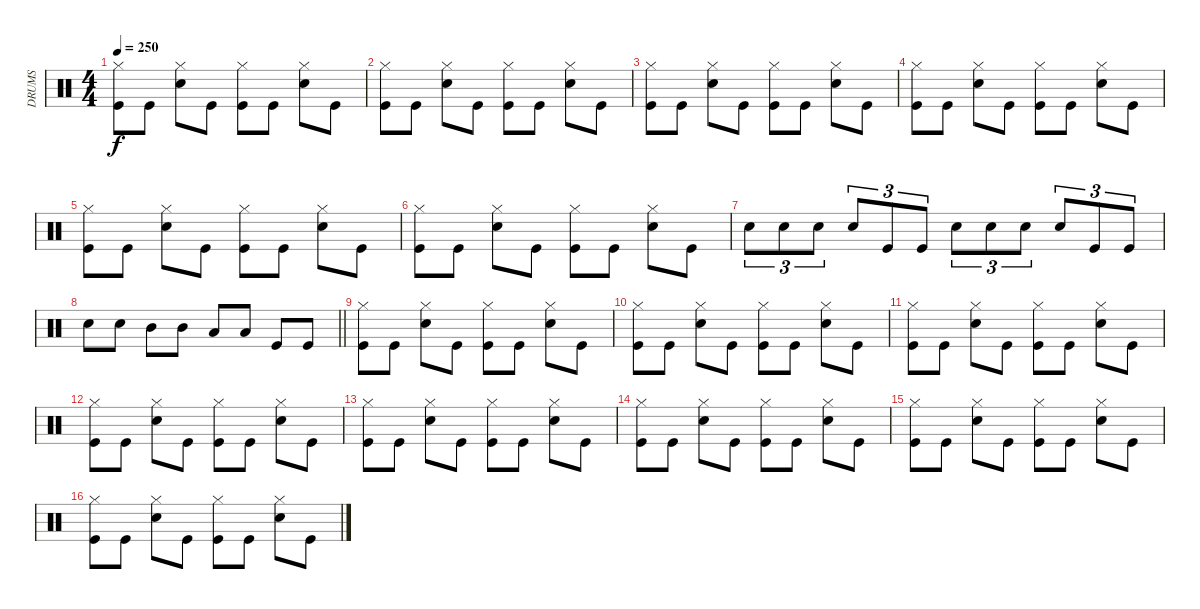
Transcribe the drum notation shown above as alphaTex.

\track ("DRUMS" "DRUMS") {instrument percussion}
\staff {score}
\articulation defaults
\ts (4 4)
\tempo 250
\clef neutral
\ks aminor
("Hi-Hat (closed)" "Kick (hit)").8{dy f} "Kick (hit)".8 ("Hi-Hat (closed)" "Snare (hit) 2").8 "Kick (hit)".8 ("Hi-Hat (closed)" "Kick (hit)").8 "Kick (hit)".8 ("Hi-Hat (closed)" "Snare (hit) 2").8 "Kick (hit)".8 |
("Hi-Hat (closed)" "Kick (hit)").8 "Kick (hit)".8 ("Hi-Hat (closed)" "Snare (hit) 2").8 "Kick (hit)".8 ("Hi-Hat (closed)" "Kick (hit)").8 "Kick (hit)".8 ("Hi-Hat (closed)" "Snare (hit) 2").8 "Kick (hit)".8 |
("Hi-Hat (closed)" "Kick (hit)").8 "Kick (hit)".8 ("Hi-Hat (closed)" "Snare (hit) 2").8 "Kick (hit)".8 ("Hi-Hat (closed)" "Kick (hit)").8 "Kick (hit)".8 ("Hi-Hat (closed)" "Snare (hit) 2").8 "Kick (hit)".8 |
("Hi-Hat (closed)" "Kick (hit)").8 "Kick (hit)".8 ("Hi-Hat (closed)" "Snare (hit) 2").8 "Kick (hit)".8 ("Hi-Hat (closed)" "Kick (hit)").8 "Kick (hit)".8 ("Hi-Hat (closed)" "Snare (hit) 2").8 "Kick (hit)".8 |
("Hi-Hat (closed)" "Kick (hit)").8 "Kick (hit)".8 ("Hi-Hat (closed)" "Snare (hit) 2").8 "Kick (hit)".8 ("Hi-Hat (closed)" "Kick (hit)").8 "Kick (hit)".8 ("Hi-Hat (closed)" "Snare (hit) 2").8 "Kick (hit)".8 |
("Hi-Hat (closed)" "Kick (hit)").8 "Kick (hit)".8 ("Hi-Hat (closed)" "Snare (hit) 2").8 "Kick (hit)".8 ("Hi-Hat (closed)" "Kick (hit)").8 "Kick (hit)".8 ("Hi-Hat (closed)" "Snare (hit) 2").8 "Kick (hit)".8 |
"Snare (hit) 2".8{tu (3 2)} "Snare (hit) 2".8{tu (3 2)} "Snare (hit) 2".8{tu (3 2)} "Snare (hit) 2".8{tu (3 2)} "Kick (hit)".8{tu (3 2)} "Kick (hit)".8{tu (3 2)} "Snare (hit) 2".8{tu (3 2)} "Snare (hit) 2".8{tu (3 2)} "Snare (hit) 2".8{tu (3 2)} "Snare (hit) 2".8{tu (3 2)} "Kick (hit)".8{tu (3 2)} "Kick (hit)".8{tu (3 2)} |
\barLineRight lightlight "Snare (hit) 2".8 "Snare (hit) 2".8 "Mid Tom (hit)".8 "Mid Tom (hit)".8 "Low Tom (hit)".8 "Low Tom (hit)".8 "Kick (hit)".8 "Kick (hit)".8
|
("Hi-Hat (closed)" "Kick (hit)").8 "Kick (hit)".8 ("Hi-Hat (closed)" "Snare (hit) 2").8 "Kick (hit)".8 ("Hi-Hat (closed)" "Kick (hit)").8 "Kick (hit)".8 ("Hi-Hat (closed)" "Snare (hit) 2").8 "Kick (hit)".8 |
("Hi-Hat (closed)" "Kick (hit)").8 "Kick (hit)".8 ("Hi-Hat (closed)" "Snare (hit) 2").8 "Kick (hit)".8 ("Hi-Hat (closed)" "Kick (hit)").8 "Kick (hit)".8 ("Hi-Hat (closed)" "Snare (hit) 2").8 "Kick (hit)".8 |
("Hi-Hat (closed)" "Kick (hit)").8 "Kick (hit)".8 ("Hi-Hat (closed)" "Snare (hit) 2").8 "Kick (hit)".8 ("Hi-Hat (closed)" "Kick (hit)").8 "Kick (hit)".8 ("Hi-Hat (closed)" "Snare (hit) 2").8 "Kick (hit)".8 |
("Hi-Hat (closed)" "Kick (hit)").8 "Kick (hit)".8 ("Hi-Hat (closed)" "Snare (hit) 2").8 "Kick (hit)".8 ("Hi-Hat (closed)" "Kick (hit)").8 "Kick (hit)".8 ("Hi-Hat (closed)" "Snare (hit) 2").8 "Kick (hit)".8 |
("Hi-Hat (closed)" "Kick (hit)").8 "Kick (hit)".8 ("Hi-Hat (closed)" "Snare (hit) 2").8 "Kick (hit)".8 ("Hi-Hat (closed)" "Kick (hit)").8 "Kick (hit)".8 ("Hi-Hat (closed)" "Snare (hit) 2").8 "Kick (hit)".8 |
("Hi-Hat (closed)" "Kick (hit)").8 "Kick (hit)".8 ("Hi-Hat (closed)" "Snare (hit) 2").8 "Kick (hit)".8 ("Hi-Hat (closed)" "Kick (hit)").8 "Kick (hit)".8 ("Hi-Hat (closed)" "Snare (hit) 2").8 "Kick (hit)".8 |
("Hi-Hat (closed)" "Kick (hit)").8 "Kick (hit)".8 ("Hi-Hat (closed)" "Snare (hit) 2").8 "Kick (hit)".8 ("Hi-Hat (closed)" "Kick (hit)").8 "Kick (hit)".8 ("Hi-Hat (closed)" "Snare (hit) 2").8 "Kick (hit)".8 |
("Hi-Hat (closed)" "Kick (hit)").8 "Kick (hit)".8 ("Hi-Hat (closed)" "Snare (hit) 2").8 "Kick (hit)".8 ("Hi-Hat (closed)" "Kick (hit)").8 "Kick (hit)".8 ("Hi-Hat (closed)" "Snare (hit) 2").8 "Kick (hit)".8
